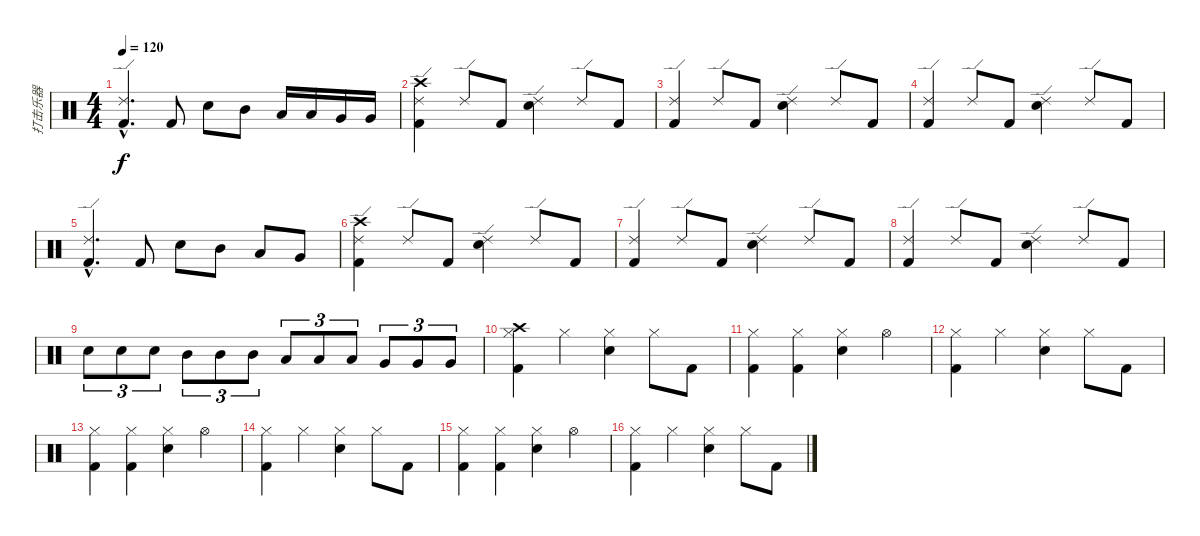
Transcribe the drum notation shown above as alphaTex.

\track ("打击乐器" "打击乐器") {instrument percussion}
\staff {score}
\articulation defaults
\ts (4 4)
\tempo 120
\clef neutral
\ks c
("Ride (edge) 2"{hac} "Kick (hit) 2"{hac}).4{d dy f} "Kick (hit) 2".8 "Electric Snare (hit)".8 "Mid Tom (hit)".8 "Low Tom (hit)".16 "Low Tom (hit)".16 "Very Low Tom (hit)".16 "Very Low Tom (hit)".16 |
("Ride (edge) 2" "Crash high (hit)" "Kick (hit) 2").4 "Ride (edge) 2".8 "Kick (hit) 2".8 ("Ride (edge) 2" "Electric Snare (hit)").4 "Ride (edge) 2".8 "Kick (hit) 2".8 |
("Ride (edge) 2" "Kick (hit) 2").4 "Ride (edge) 2".8 "Kick (hit) 2".8 ("Ride (edge) 2" "Electric Snare (hit)").4 "Ride (edge) 2".8 "Kick (hit) 2".8 |
("Ride (edge) 2" "Kick (hit) 2").4 "Ride (edge) 2".8 "Kick (hit) 2".8 ("Ride (edge) 2" "Electric Snare (hit)").4 "Ride (edge) 2".8 "Kick (hit) 2".8 |
("Ride (edge) 2"{hac} "Kick (hit) 2"{hac}).4{d} "Kick (hit) 2".8 "Electric Snare (hit)".8 "Mid Tom (hit)".8 "Low Tom (hit)".8 "Very Low Tom (hit)".8 |
("Ride (edge) 2" "Crash high (hit)" "Kick (hit) 2").4 "Ride (edge) 2".8 "Kick (hit) 2".8 ("Ride (edge) 2" "Electric Snare (hit)").4 "Ride (edge) 2".8 "Kick (hit) 2".8 |
("Ride (edge) 2" "Kick (hit) 2").4 "Ride (edge) 2".8 "Kick (hit) 2".8 ("Ride (edge) 2" "Electric Snare (hit)").4 "Ride (edge) 2".8 "Kick (hit) 2".8 |
("Ride (edge) 2" "Kick (hit) 2").4 "Ride (edge) 2".8 "Kick (hit) 2".8 ("Ride (edge) 2" "Electric Snare (hit)").4 "Ride (edge) 2".8 "Kick (hit) 2".8 |
"Electric Snare (hit)".8{tu (3 2)} "Electric Snare (hit)".8{tu (3 2)} "Electric Snare (hit)".8{tu (3 2)} "Mid Tom (hit)".8{tu (3 2)} "Mid Tom (hit)".8{tu (3 2)} "Mid Tom (hit)".8{tu (3 2)} "Low Tom (hit)".8{tu (3 2)} "Low Tom (hit)".8{tu (3 2)} "Low Tom (hit)".8{tu (3 2)} "Very Low Tom (hit)".8{tu (3 2)} "Very Low Tom (hit)".8{tu (3 2)} "Very Low Tom (hit)".8{tu (3 2)} |
("Hi-Hat (closed)" "Crash high (hit)" "Kick (hit) 2").4 "Hi-Hat (closed)".4 ("Hi-Hat (closed)" "Electric Snare (hit)").4 "Hi-Hat (closed)".8 "Kick (hit) 2".8 |
("Hi-Hat (closed)" "Kick (hit) 2").4 ("Hi-Hat (closed)" "Kick (hit) 2").4 ("Hi-Hat (closed)" "Electric Snare (hit)").4 "Hi-Hat (open)".4 |
("Hi-Hat (closed)" "Kick (hit) 2").4 "Hi-Hat (closed)".4 ("Hi-Hat (closed)" "Electric Snare (hit)").4 "Hi-Hat (closed)".8 "Kick (hit) 2".8 |
("Hi-Hat (closed)" "Kick (hit) 2").4 ("Hi-Hat (closed)" "Kick (hit) 2").4 ("Hi-Hat (closed)" "Electric Snare (hit)").4 "Hi-Hat (open)".4 |
("Hi-Hat (closed)" "Kick (hit) 2").4 "Hi-Hat (closed)".4 ("Hi-Hat (closed)" "Electric Snare (hit)").4 "Hi-Hat (closed)".8 "Kick (hit) 2".8 |
("Hi-Hat (closed)" "Kick (hit) 2").4 ("Hi-Hat (closed)" "Kick (hit) 2").4 ("Hi-Hat (closed)" "Electric Snare (hit)").4 "Hi-Hat (open)".4 |
("Hi-Hat (closed)" "Kick (hit) 2").4 "Hi-Hat (closed)".4 ("Hi-Hat (closed)" "Electric Snare (hit)").4 "Hi-Hat (closed)".8 "Kick (hit) 2".8
